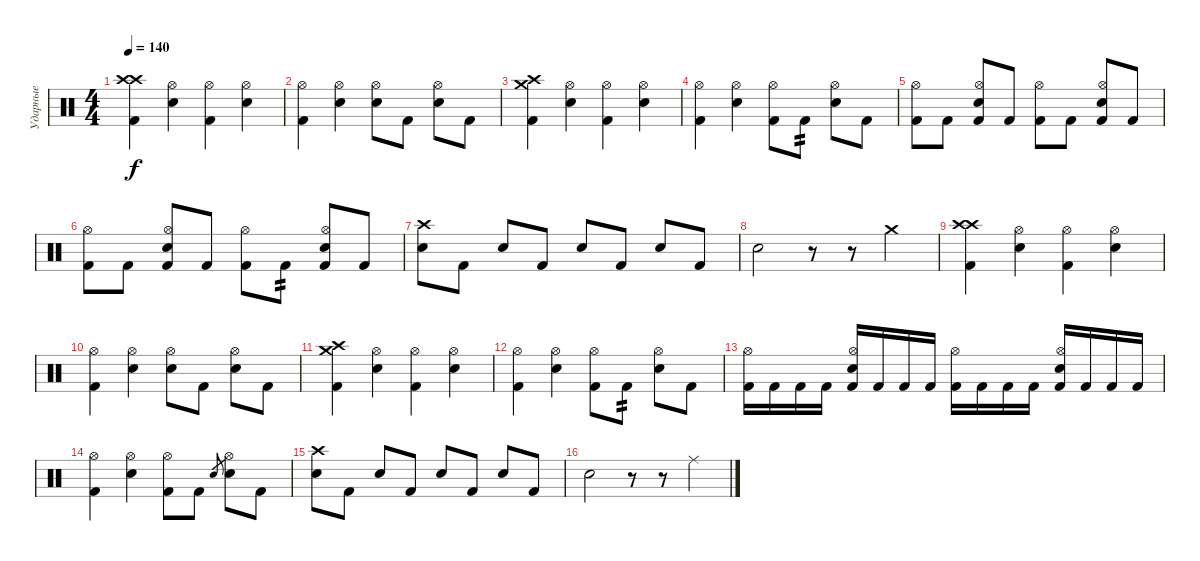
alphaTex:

\track ("Ударные" "Ударные") {instrument percussion}
\staff {score}
\articulation defaults
\ts (4 4)
\tempo 140
\clef neutral
\ks c
("Crash high (hit)" "Crash high (hit)" "Kick (hit) 2").4{dy f} ("Hi-Hat (open)" "Electric Snare (hit)").4 ("Hi-Hat (open)" "Kick (hit) 2").4 ("Hi-Hat (open)" "Electric Snare (hit)").4 |
("Hi-Hat (open)" "Kick (hit) 2").4 ("Hi-Hat (open)" "Electric Snare (hit)").4 ("Hi-Hat (open)" "Electric Snare (hit)").8 "Kick (hit) 2".8 ("Hi-Hat (open)" "Electric Snare (hit)").8 "Kick (hit) 2".8 |
("Crash medium (hit)" "Crash high (hit)" "Kick (hit) 2").4 ("Hi-Hat (open)" "Electric Snare (hit)").4 ("Hi-Hat (open)" "Kick (hit) 2").4 ("Hi-Hat (open)" "Electric Snare (hit)").4 |
("Hi-Hat (open)" "Kick (hit) 2").4 ("Hi-Hat (open)" "Electric Snare (hit)").4 ("Hi-Hat (open)" "Kick (hit) 2").8 "Kick (hit) 2".8{tp 2} ("Hi-Hat (open)" "Electric Snare (hit)").8 "Kick (hit) 2".8 |
("Hi-Hat (open)" "Kick (hit) 2").8 "Kick (hit) 2".8 ("Hi-Hat (open)" "Electric Snare (hit)" "Kick (hit) 2").8 "Kick (hit) 2".8 ("Hi-Hat (open)" "Kick (hit) 2").8 "Kick (hit) 2".8 ("Hi-Hat (open)" "Electric Snare (hit)" "Kick (hit) 2").8 "Kick (hit) 2".8 |
("Hi-Hat (open)" "Kick (hit) 2").8 "Kick (hit) 2".8 ("Hi-Hat (open)" "Electric Snare (hit)" "Kick (hit) 2").8 "Kick (hit) 2".8 ("Hi-Hat (open)" "Kick (hit) 2").8 "Kick (hit) 2".8{tp 2} ("Hi-Hat (open)" "Electric Snare (hit)" "Kick (hit) 2").8 "Kick (hit) 2".8 |
("Crash high (hit)" "Electric Snare (hit)").8 "Kick (hit) 2".8 "Electric Snare (hit)".8 "Kick (hit) 2".8 "Electric Snare (hit)".8 "Kick (hit) 2".8 "Electric Snare (hit)".8 "Kick (hit) 2".8 |
"Electric Snare (hit)".2 r.8 r.8 "Crash medium (hit)".4 |
("Crash high (hit)" "Crash high (hit)" "Kick (hit) 2").4 ("Hi-Hat (open)" "Electric Snare (hit)").4 ("Hi-Hat (open)" "Kick (hit) 2").4 ("Hi-Hat (open)" "Electric Snare (hit)").4 |
("Hi-Hat (open)" "Kick (hit) 2").4 ("Hi-Hat (open)" "Electric Snare (hit)").4 ("Hi-Hat (open)" "Electric Snare (hit)").8 "Kick (hit) 2".8 ("Hi-Hat (open)" "Electric Snare (hit)").8 "Kick (hit) 2".8 |
("Crash medium (hit)" "Crash high (hit)" "Kick (hit) 2").4 ("Hi-Hat (open)" "Electric Snare (hit)").4 ("Hi-Hat (open)" "Kick (hit) 2").4 ("Hi-Hat (open)" "Electric Snare (hit)").4 |
("Hi-Hat (open)" "Kick (hit) 2").4 ("Hi-Hat (open)" "Electric Snare (hit)").4 ("Hi-Hat (open)" "Kick (hit) 2").8 "Kick (hit) 2".8{tp 2} ("Hi-Hat (open)" "Electric Snare (hit)").8 "Kick (hit) 2".8 |
("Hi-Hat (open)" "Kick (hit) 2").16 "Kick (hit) 2".16 "Kick (hit) 2".16 "Kick (hit) 2".16 ("Hi-Hat (open)" "Electric Snare (hit)" "Kick (hit) 2").16 "Kick (hit) 2".16 "Kick (hit) 2".16 "Kick (hit) 2".16 ("Hi-Hat (open)" "Kick (hit) 2").16 "Kick (hit) 2".16 "Kick (hit) 2".16 "Kick (hit) 2".16 ("Hi-Hat (open)" "Electric Snare (hit)" "Kick (hit) 2").16 "Kick (hit) 2".16 "Kick (hit) 2".16 "Kick (hit) 2".16 |
("Hi-Hat (open)" "Kick (hit) 2").4 ("Hi-Hat (open)" "Electric Snare (hit)").4 ("Hi-Hat (open)" "Kick (hit) 2").8 "Kick (hit) 2".8 "Electric Snare (hit)".8{gr} ("Hi-Hat (open)" "Electric Snare (hit)").8 "Kick (hit) 2".8 |
("Crash high (hit)" "Electric Snare (hit)").8 "Kick (hit) 2".8 "Electric Snare (hit)".8 "Kick (hit) 2".8 "Electric Snare (hit)".8 "Kick (hit) 2".8 "Electric Snare (hit)".8 "Kick (hit) 2".8 |
"Electric Snare (hit)".2 r.8 r.8 "Ride (middle)".4
